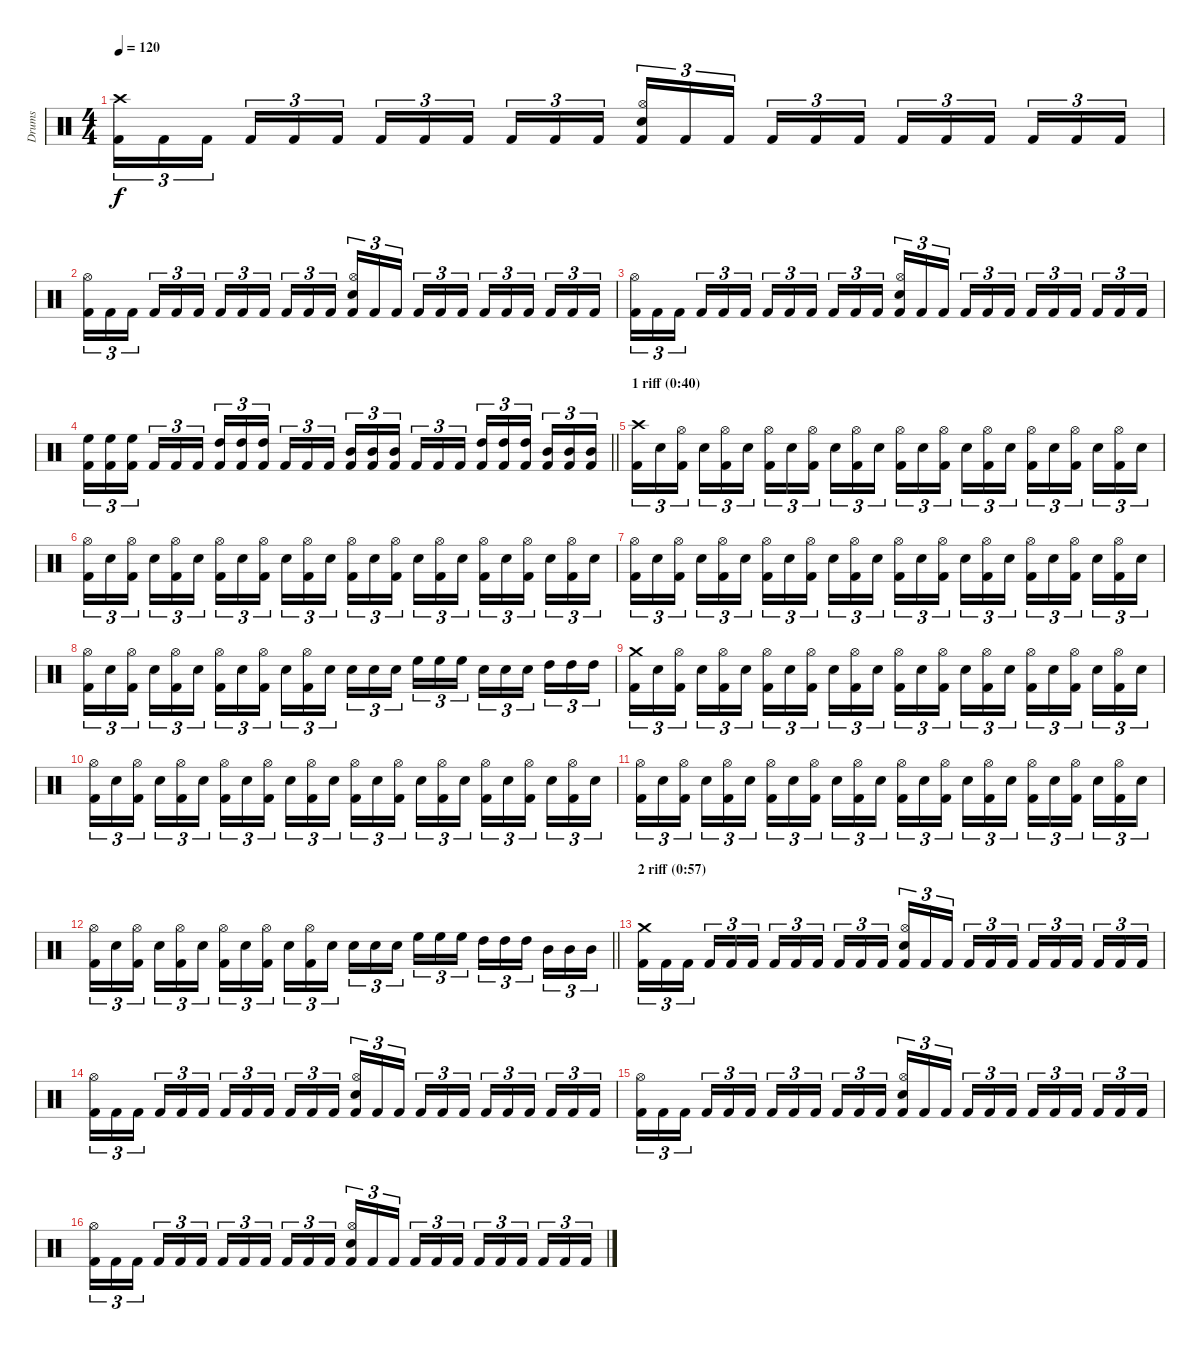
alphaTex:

\track ("Drums" "Drums") {instrument percussion}
\staff {score}
\articulation defaults
\ts (4 4)
\tempo 120
\clef neutral
\ks c
("Crash high (hit)" "Kick (hit) 2").16{tu (3 2) dy f} "Kick (hit) 2".16{tu (3 2)} "Kick (hit) 2".16{tu (3 2) beam splitsecondary} "Kick (hit) 2".16{tu (3 2)} "Kick (hit) 2".16{tu (3 2)} "Kick (hit) 2".16{tu (3 2)} "Kick (hit) 2".16{tu (3 2)} "Kick (hit) 2".16{tu (3 2)} "Kick (hit) 2".16{tu (3 2) beam splitsecondary} "Kick (hit) 2".16{tu (3 2)} "Kick (hit) 2".16{tu (3 2)} "Kick (hit) 2".16{tu (3 2)} ("Hi-Hat (open)" "Snare (hit) 2" "Kick (hit) 2").16{tu (3 2)} "Kick (hit) 2".16{tu (3 2)} "Kick (hit) 2".16{tu (3 2) beam splitsecondary} "Kick (hit) 2".16{tu (3 2)} "Kick (hit) 2".16{tu (3 2)} "Kick (hit) 2".16{tu (3 2)} "Kick (hit) 2".16{tu (3 2)} "Kick (hit) 2".16{tu (3 2)} "Kick (hit) 2".16{tu (3 2) beam splitsecondary} "Kick (hit) 2".16{tu (3 2)} "Kick (hit) 2".16{tu (3 2)} "Kick (hit) 2".16{tu (3 2)} |
("Hi-Hat (open)" "Kick (hit) 2").16{tu (3 2)} "Kick (hit) 2".16{tu (3 2)} "Kick (hit) 2".16{tu (3 2) beam splitsecondary} "Kick (hit) 2".16{tu (3 2)} "Kick (hit) 2".16{tu (3 2)} "Kick (hit) 2".16{tu (3 2)} "Kick (hit) 2".16{tu (3 2)} "Kick (hit) 2".16{tu (3 2)} "Kick (hit) 2".16{tu (3 2) beam splitsecondary} "Kick (hit) 2".16{tu (3 2)} "Kick (hit) 2".16{tu (3 2)} "Kick (hit) 2".16{tu (3 2)} ("Hi-Hat (open)" "Snare (hit) 2" "Kick (hit) 2").16{tu (3 2)} "Kick (hit) 2".16{tu (3 2)} "Kick (hit) 2".16{tu (3 2) beam splitsecondary} "Kick (hit) 2".16{tu (3 2)} "Kick (hit) 2".16{tu (3 2)} "Kick (hit) 2".16{tu (3 2)} "Kick (hit) 2".16{tu (3 2)} "Kick (hit) 2".16{tu (3 2)} "Kick (hit) 2".16{tu (3 2) beam splitsecondary} "Kick (hit) 2".16{tu (3 2)} "Kick (hit) 2".16{tu (3 2)} "Kick (hit) 2".16{tu (3 2)} |
("Hi-Hat (open)" "Kick (hit) 2").16{tu (3 2)} "Kick (hit) 2".16{tu (3 2)} "Kick (hit) 2".16{tu (3 2) beam splitsecondary} "Kick (hit) 2".16{tu (3 2)} "Kick (hit) 2".16{tu (3 2)} "Kick (hit) 2".16{tu (3 2)} "Kick (hit) 2".16{tu (3 2)} "Kick (hit) 2".16{tu (3 2)} "Kick (hit) 2".16{tu (3 2) beam splitsecondary} "Kick (hit) 2".16{tu (3 2)} "Kick (hit) 2".16{tu (3 2)} "Kick (hit) 2".16{tu (3 2)} ("Hi-Hat (open)" "Snare (hit) 2" "Kick (hit) 2").16{tu (3 2)} "Kick (hit) 2".16{tu (3 2)} "Kick (hit) 2".16{tu (3 2) beam splitsecondary} "Kick (hit) 2".16{tu (3 2)} "Kick (hit) 2".16{tu (3 2)} "Kick (hit) 2".16{tu (3 2)} "Kick (hit) 2".16{tu (3 2)} "Kick (hit) 2".16{tu (3 2)} "Kick (hit) 2".16{tu (3 2) beam splitsecondary} "Kick (hit) 2".16{tu (3 2)} "Kick (hit) 2".16{tu (3 2)} "Kick (hit) 2".16{tu (3 2)} |
\barLineRight lightlight
("High Floor Tom (hit)" "Kick (hit) 2").16{tu (3 2)} ("High Floor Tom (hit)" "Kick (hit) 2").16{tu (3 2)} ("High Floor Tom (hit)" "Kick (hit) 2").16{tu (3 2) beam splitsecondary} "Kick (hit) 2".16{tu (3 2)} "Kick (hit) 2".16{tu (3 2)} "Kick (hit) 2".16{tu (3 2)} ("High Tom (hit)" "Kick (hit) 2").16{tu (3 2)} ("High Tom (hit)" "Kick (hit) 2").16{tu (3 2)} ("High Tom (hit)" "Kick (hit) 2").16{tu (3 2) beam splitsecondary} "Kick (hit) 2".16{tu (3 2)} "Kick (hit) 2".16{tu (3 2)} "Kick (hit) 2".16{tu (3 2)} ("Mid Tom (hit)" "Kick (hit) 2").16{tu (3 2)} ("Mid Tom (hit)" "Kick (hit) 2").16{tu (3 2)} ("Mid Tom (hit)" "Kick (hit) 2").16{tu (3 2) beam splitsecondary} "Kick (hit) 2".16{tu (3 2)} "Kick (hit) 2".16{tu (3 2)} "Kick (hit) 2".16{tu (3 2)} ("High Tom (hit)" "Kick (hit) 2").16{tu (3 2)} ("High Tom (hit)" "Kick (hit) 2").16{tu (3 2)} ("High Tom (hit)" "Kick (hit) 2").16{tu (3 2) beam splitsecondary} ("Mid Tom (hit)" "Kick (hit) 2").16{tu (3 2)} ("Mid Tom (hit)" "Kick (hit) 2").16{tu (3 2)} ("Mid Tom (hit)" "Kick (hit) 2").16{tu (3 2)} |
\section ("" "1 riff (0:40)")
("Crash high (hit)" "Kick (hit) 2").16{tu (3 2)} "Snare (hit) 2".16{tu (3 2)} ("Hi-Hat (open)" "Kick (hit) 2").16{tu (3 2) beam splitsecondary} "Snare (hit) 2".16{tu (3 2)} ("Hi-Hat (open)" "Kick (hit) 2").16{tu (3 2)} "Snare (hit) 2".16{tu (3 2)} ("Hi-Hat (open)" "Kick (hit) 2").16{tu (3 2)} "Snare (hit) 2".16{tu (3 2)} ("Hi-Hat (open)" "Kick (hit) 2").16{tu (3 2) beam splitsecondary} "Snare (hit) 2".16{tu (3 2)} ("Hi-Hat (open)" "Kick (hit) 2").16{tu (3 2)} "Snare (hit) 2".16{tu (3 2)} ("Hi-Hat (open)" "Kick (hit) 2").16{tu (3 2)} "Snare (hit) 2".16{tu (3 2)} ("Hi-Hat (open)" "Kick (hit) 2").16{tu (3 2) beam splitsecondary} "Snare (hit) 2".16{tu (3 2)} ("Hi-Hat (open)" "Kick (hit) 2").16{tu (3 2)} "Snare (hit) 2".16{tu (3 2)} ("Hi-Hat (open)" "Kick (hit) 2").16{tu (3 2)} "Snare (hit) 2".16{tu (3 2)} ("Hi-Hat (open)" "Kick (hit) 2").16{tu (3 2) beam splitsecondary} "Snare (hit) 2".16{tu (3 2)} ("Hi-Hat (open)" "Kick (hit) 2").16{tu (3 2)} "Snare (hit) 2".16{tu (3 2)} |
("Hi-Hat (open)" "Kick (hit) 2").16{tu (3 2)} "Snare (hit) 2".16{tu (3 2)} ("Hi-Hat (open)" "Kick (hit) 2").16{tu (3 2) beam splitsecondary} "Snare (hit) 2".16{tu (3 2)} ("Hi-Hat (open)" "Kick (hit) 2").16{tu (3 2)} "Snare (hit) 2".16{tu (3 2)} ("Hi-Hat (open)" "Kick (hit) 2").16{tu (3 2)} "Snare (hit) 2".16{tu (3 2)} ("Hi-Hat (open)" "Kick (hit) 2").16{tu (3 2) beam splitsecondary} "Snare (hit) 2".16{tu (3 2)} ("Hi-Hat (open)" "Kick (hit) 2").16{tu (3 2)} "Snare (hit) 2".16{tu (3 2)} ("Hi-Hat (open)" "Kick (hit) 2").16{tu (3 2)} "Snare (hit) 2".16{tu (3 2)} ("Hi-Hat (open)" "Kick (hit) 2").16{tu (3 2) beam splitsecondary} "Snare (hit) 2".16{tu (3 2)} ("Hi-Hat (open)" "Kick (hit) 2").16{tu (3 2)} "Snare (hit) 2".16{tu (3 2)} ("Hi-Hat (open)" "Kick (hit) 2").16{tu (3 2)} "Snare (hit) 2".16{tu (3 2)} ("Hi-Hat (open)" "Kick (hit) 2").16{tu (3 2) beam splitsecondary} "Snare (hit) 2".16{tu (3 2)} ("Hi-Hat (open)" "Kick (hit) 2").16{tu (3 2)} "Snare (hit) 2".16{tu (3 2)} |
("Hi-Hat (open)" "Kick (hit) 2").16{tu (3 2)} "Snare (hit) 2".16{tu (3 2)} ("Hi-Hat (open)" "Kick (hit) 2").16{tu (3 2) beam splitsecondary} "Snare (hit) 2".16{tu (3 2)} ("Hi-Hat (open)" "Kick (hit) 2").16{tu (3 2)} "Snare (hit) 2".16{tu (3 2)} ("Hi-Hat (open)" "Kick (hit) 2").16{tu (3 2)} "Snare (hit) 2".16{tu (3 2)} ("Hi-Hat (open)" "Kick (hit) 2").16{tu (3 2) beam splitsecondary} "Snare (hit) 2".16{tu (3 2)} ("Hi-Hat (open)" "Kick (hit) 2").16{tu (3 2)} "Snare (hit) 2".16{tu (3 2)} ("Hi-Hat (open)" "Kick (hit) 2").16{tu (3 2)} "Snare (hit) 2".16{tu (3 2)} ("Hi-Hat (open)" "Kick (hit) 2").16{tu (3 2) beam splitsecondary} "Snare (hit) 2".16{tu (3 2)} ("Hi-Hat (open)" "Kick (hit) 2").16{tu (3 2)} "Snare (hit) 2".16{tu (3 2)} ("Hi-Hat (open)" "Kick (hit) 2").16{tu (3 2)} "Snare (hit) 2".16{tu (3 2)} ("Hi-Hat (open)" "Kick (hit) 2").16{tu (3 2) beam splitsecondary} "Snare (hit) 2".16{tu (3 2)} ("Hi-Hat (open)" "Kick (hit) 2").16{tu (3 2)} "Snare (hit) 2".16{tu (3 2)} |
("Hi-Hat (open)" "Kick (hit) 2").16{tu (3 2)} "Snare (hit) 2".16{tu (3 2)} ("Hi-Hat (open)" "Kick (hit) 2").16{tu (3 2) beam splitsecondary} "Snare (hit) 2".16{tu (3 2)} ("Hi-Hat (open)" "Kick (hit) 2").16{tu (3 2)} "Snare (hit) 2".16{tu (3 2)} ("Hi-Hat (open)" "Kick (hit) 2").16{tu (3 2)} "Snare (hit) 2".16{tu (3 2)} ("Hi-Hat (open)" "Kick (hit) 2").16{tu (3 2) beam splitsecondary} "Snare (hit) 2".16{tu (3 2)} ("Hi-Hat (open)" "Kick (hit) 2").16{tu (3 2)} "Snare (hit) 2".16{tu (3 2)} "Snare (hit) 2".16{tu (3 2)} "Snare (hit) 2".16{tu (3 2)} "Snare (hit) 2".16{tu (3 2) beam splitsecondary} "High Floor Tom (hit)".16{tu (3 2)} "High Floor Tom (hit)".16{tu (3 2)} "High Floor Tom (hit)".16{tu (3 2)} "Snare (hit) 2".16{tu (3 2)} "Snare (hit) 2".16{tu (3 2)} "Snare (hit) 2".16{tu (3 2) beam splitsecondary} "High Tom (hit)".16{tu (3 2)} "High Tom (hit)".16{tu (3 2)} "High Tom (hit)".16{tu (3 2)} |
("Crash medium (hit)" "Kick (hit) 2").16{tu (3 2)} "Snare (hit) 2".16{tu (3 2)} ("Hi-Hat (open)" "Kick (hit) 2").16{tu (3 2) beam splitsecondary} "Snare (hit) 2".16{tu (3 2)} ("Hi-Hat (open)" "Kick (hit) 2").16{tu (3 2)} "Snare (hit) 2".16{tu (3 2)} ("Hi-Hat (open)" "Kick (hit) 2").16{tu (3 2)} "Snare (hit) 2".16{tu (3 2)} ("Hi-Hat (open)" "Kick (hit) 2").16{tu (3 2) beam splitsecondary} "Snare (hit) 2".16{tu (3 2)} ("Hi-Hat (open)" "Kick (hit) 2").16{tu (3 2)} "Snare (hit) 2".16{tu (3 2)} ("Hi-Hat (open)" "Kick (hit) 2").16{tu (3 2)} "Snare (hit) 2".16{tu (3 2)} ("Hi-Hat (open)" "Kick (hit) 2").16{tu (3 2) beam splitsecondary} "Snare (hit) 2".16{tu (3 2)} ("Hi-Hat (open)" "Kick (hit) 2").16{tu (3 2)} "Snare (hit) 2".16{tu (3 2)} ("Hi-Hat (open)" "Kick (hit) 2").16{tu (3 2)} "Snare (hit) 2".16{tu (3 2)} ("Hi-Hat (open)" "Kick (hit) 2").16{tu (3 2) beam splitsecondary} "Snare (hit) 2".16{tu (3 2)} ("Hi-Hat (open)" "Kick (hit) 2").16{tu (3 2)} "Snare (hit) 2".16{tu (3 2)} |
("Hi-Hat (open)" "Kick (hit) 2").16{tu (3 2)} "Snare (hit) 2".16{tu (3 2)} ("Hi-Hat (open)" "Kick (hit) 2").16{tu (3 2) beam splitsecondary} "Snare (hit) 2".16{tu (3 2)} ("Hi-Hat (open)" "Kick (hit) 2").16{tu (3 2)} "Snare (hit) 2".16{tu (3 2)} ("Hi-Hat (open)" "Kick (hit) 2").16{tu (3 2)} "Snare (hit) 2".16{tu (3 2)} ("Hi-Hat (open)" "Kick (hit) 2").16{tu (3 2) beam splitsecondary} "Snare (hit) 2".16{tu (3 2)} ("Hi-Hat (open)" "Kick (hit) 2").16{tu (3 2)} "Snare (hit) 2".16{tu (3 2)} ("Hi-Hat (open)" "Kick (hit) 2").16{tu (3 2)} "Snare (hit) 2".16{tu (3 2)} ("Hi-Hat (open)" "Kick (hit) 2").16{tu (3 2) beam splitsecondary} "Snare (hit) 2".16{tu (3 2)} ("Hi-Hat (open)" "Kick (hit) 2").16{tu (3 2)} "Snare (hit) 2".16{tu (3 2)} ("Hi-Hat (open)" "Kick (hit) 2").16{tu (3 2)} "Snare (hit) 2".16{tu (3 2)} ("Hi-Hat (open)" "Kick (hit) 2").16{tu (3 2) beam splitsecondary} "Snare (hit) 2".16{tu (3 2)} ("Hi-Hat (open)" "Kick (hit) 2").16{tu (3 2)} "Snare (hit) 2".16{tu (3 2)} |
("Hi-Hat (open)" "Kick (hit) 2").16{tu (3 2)} "Snare (hit) 2".16{tu (3 2)} ("Hi-Hat (open)" "Kick (hit) 2").16{tu (3 2) beam splitsecondary} "Snare (hit) 2".16{tu (3 2)} ("Hi-Hat (open)" "Kick (hit) 2").16{tu (3 2)} "Snare (hit) 2".16{tu (3 2)} ("Hi-Hat (open)" "Kick (hit) 2").16{tu (3 2)} "Snare (hit) 2".16{tu (3 2)} ("Hi-Hat (open)" "Kick (hit) 2").16{tu (3 2) beam splitsecondary} "Snare (hit) 2".16{tu (3 2)} ("Hi-Hat (open)" "Kick (hit) 2").16{tu (3 2)} "Snare (hit) 2".16{tu (3 2)} ("Hi-Hat (open)" "Kick (hit) 2").16{tu (3 2)} "Snare (hit) 2".16{tu (3 2)} ("Hi-Hat (open)" "Kick (hit) 2").16{tu (3 2) beam splitsecondary} "Snare (hit) 2".16{tu (3 2)} ("Hi-Hat (open)" "Kick (hit) 2").16{tu (3 2)} "Snare (hit) 2".16{tu (3 2)} ("Hi-Hat (open)" "Kick (hit) 2").16{tu (3 2)} "Snare (hit) 2".16{tu (3 2)} ("Hi-Hat (open)" "Kick (hit) 2").16{tu (3 2) beam splitsecondary} "Snare (hit) 2".16{tu (3 2)} ("Hi-Hat (open)" "Kick (hit) 2").16{tu (3 2)} "Snare (hit) 2".16{tu (3 2)} |
\barLineRight lightlight
("Hi-Hat (open)" "Kick (hit) 2").16{tu (3 2)} "Snare (hit) 2".16{tu (3 2)} ("Hi-Hat (open)" "Kick (hit) 2").16{tu (3 2) beam splitsecondary} "Snare (hit) 2".16{tu (3 2)} ("Hi-Hat (open)" "Kick (hit) 2").16{tu (3 2)} "Snare (hit) 2".16{tu (3 2)} ("Hi-Hat (open)" "Kick (hit) 2").16{tu (3 2)} "Snare (hit) 2".16{tu (3 2)} ("Hi-Hat (open)" "Kick (hit) 2").16{tu (3 2) beam splitsecondary} "Snare (hit) 2".16{tu (3 2)} ("Hi-Hat (open)" "Kick (hit) 2").16{tu (3 2)} "Snare (hit) 2".16{tu (3 2)} "Snare (hit) 2".16{tu (3 2)} "Snare (hit) 2".16{tu (3 2)} "Snare (hit) 2".16{tu (3 2) beam splitsecondary} "High Floor Tom (hit)".16{tu (3 2)} "High Floor Tom (hit)".16{tu (3 2)} "High Floor Tom (hit)".16{tu (3 2)} "High Tom (hit)".16{tu (3 2)} "High Tom (hit)".16{tu (3 2)} "High Tom (hit)".16{tu (3 2) beam splitsecondary} "Mid Tom (hit)".16{tu (3 2)} "Mid Tom (hit)".16{tu (3 2)} "Mid Tom (hit)".16{tu (3 2)} |
\section ("" "2 riff (0:57)")
("Crash medium (hit)" "Kick (hit) 2").16{tu (3 2)} "Kick (hit) 2".16{tu (3 2)} "Kick (hit) 2".16{tu (3 2) beam splitsecondary} "Kick (hit) 2".16{tu (3 2)} "Kick (hit) 2".16{tu (3 2)} "Kick (hit) 2".16{tu (3 2)} "Kick (hit) 2".16{tu (3 2)} "Kick (hit) 2".16{tu (3 2)} "Kick (hit) 2".16{tu (3 2) beam splitsecondary} "Kick (hit) 2".16{tu (3 2)} "Kick (hit) 2".16{tu (3 2)} "Kick (hit) 2".16{tu (3 2)} ("Hi-Hat (open)" "Snare (hit) 2" "Kick (hit) 2").16{tu (3 2)} "Kick (hit) 2".16{tu (3 2)} "Kick (hit) 2".16{tu (3 2) beam splitsecondary} "Kick (hit) 2".16{tu (3 2)} "Kick (hit) 2".16{tu (3 2)} "Kick (hit) 2".16{tu (3 2)} "Kick (hit) 2".16{tu (3 2)} "Kick (hit) 2".16{tu (3 2)} "Kick (hit) 2".16{tu (3 2) beam splitsecondary} "Kick (hit) 2".16{tu (3 2)} "Kick (hit) 2".16{tu (3 2)} "Kick (hit) 2".16{tu (3 2)} |
("Hi-Hat (open)" "Kick (hit) 2").16{tu (3 2)} "Kick (hit) 2".16{tu (3 2)} "Kick (hit) 2".16{tu (3 2) beam splitsecondary} "Kick (hit) 2".16{tu (3 2)} "Kick (hit) 2".16{tu (3 2)} "Kick (hit) 2".16{tu (3 2)} "Kick (hit) 2".16{tu (3 2)} "Kick (hit) 2".16{tu (3 2)} "Kick (hit) 2".16{tu (3 2) beam splitsecondary} "Kick (hit) 2".16{tu (3 2)} "Kick (hit) 2".16{tu (3 2)} "Kick (hit) 2".16{tu (3 2)} ("Hi-Hat (open)" "Snare (hit) 2" "Kick (hit) 2").16{tu (3 2)} "Kick (hit) 2".16{tu (3 2)} "Kick (hit) 2".16{tu (3 2) beam splitsecondary} "Kick (hit) 2".16{tu (3 2)} "Kick (hit) 2".16{tu (3 2)} "Kick (hit) 2".16{tu (3 2)} "Kick (hit) 2".16{tu (3 2)} "Kick (hit) 2".16{tu (3 2)} "Kick (hit) 2".16{tu (3 2) beam splitsecondary} "Kick (hit) 2".16{tu (3 2)} "Kick (hit) 2".16{tu (3 2)} "Kick (hit) 2".16{tu (3 2)} |
("Hi-Hat (open)" "Kick (hit) 2").16{tu (3 2)} "Kick (hit) 2".16{tu (3 2)} "Kick (hit) 2".16{tu (3 2) beam splitsecondary} "Kick (hit) 2".16{tu (3 2)} "Kick (hit) 2".16{tu (3 2)} "Kick (hit) 2".16{tu (3 2)} "Kick (hit) 2".16{tu (3 2)} "Kick (hit) 2".16{tu (3 2)} "Kick (hit) 2".16{tu (3 2) beam splitsecondary} "Kick (hit) 2".16{tu (3 2)} "Kick (hit) 2".16{tu (3 2)} "Kick (hit) 2".16{tu (3 2)} ("Hi-Hat (open)" "Snare (hit) 2" "Kick (hit) 2").16{tu (3 2)} "Kick (hit) 2".16{tu (3 2)} "Kick (hit) 2".16{tu (3 2) beam splitsecondary} "Kick (hit) 2".16{tu (3 2)} "Kick (hit) 2".16{tu (3 2)} "Kick (hit) 2".16{tu (3 2)} "Kick (hit) 2".16{tu (3 2)} "Kick (hit) 2".16{tu (3 2)} "Kick (hit) 2".16{tu (3 2) beam splitsecondary} "Kick (hit) 2".16{tu (3 2)} "Kick (hit) 2".16{tu (3 2)} "Kick (hit) 2".16{tu (3 2)} |
("Hi-Hat (open)" "Kick (hit) 2").16{tu (3 2)} "Kick (hit) 2".16{tu (3 2)} "Kick (hit) 2".16{tu (3 2) beam splitsecondary} "Kick (hit) 2".16{tu (3 2)} "Kick (hit) 2".16{tu (3 2)} "Kick (hit) 2".16{tu (3 2)} "Kick (hit) 2".16{tu (3 2)} "Kick (hit) 2".16{tu (3 2)} "Kick (hit) 2".16{tu (3 2) beam splitsecondary} "Kick (hit) 2".16{tu (3 2)} "Kick (hit) 2".16{tu (3 2)} "Kick (hit) 2".16{tu (3 2)} ("Hi-Hat (open)" "Snare (hit) 2" "Kick (hit) 2").16{tu (3 2)} "Kick (hit) 2".16{tu (3 2)} "Kick (hit) 2".16{tu (3 2) beam splitsecondary} "Kick (hit) 2".16{tu (3 2)} "Kick (hit) 2".16{tu (3 2)} "Kick (hit) 2".16{tu (3 2)} "Kick (hit) 2".16{tu (3 2)} "Kick (hit) 2".16{tu (3 2)} "Kick (hit) 2".16{tu (3 2) beam splitsecondary} "Kick (hit) 2".16{tu (3 2)} "Kick (hit) 2".16{tu (3 2)} "Kick (hit) 2".16{tu (3 2)}
